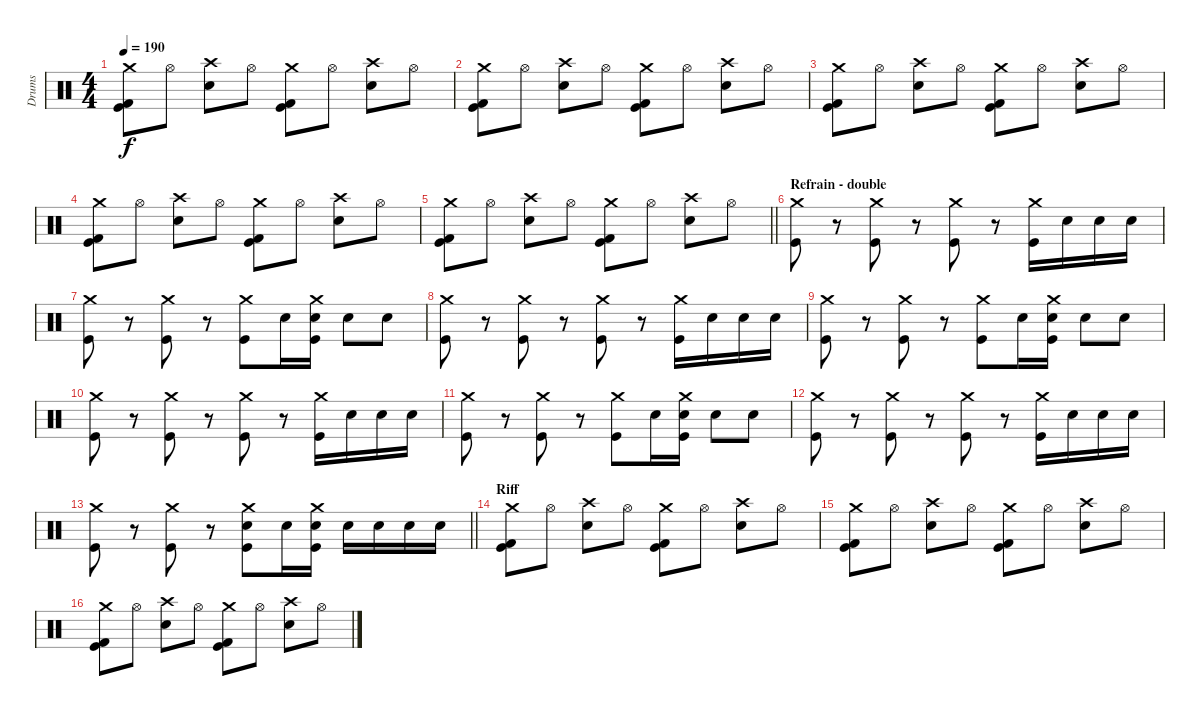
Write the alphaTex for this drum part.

\track ("Drums" "Drums") {instrument percussion}
\staff {score}
\articulation defaults
\ts (4 4)
\tempo 190
\clef neutral
\ks c
("Crash medium (hit)" "Kick (hit) 2" "Kick (hit)").8{dy f} "Hi-Hat (open)".8 ("Crash high (hit)" "Electric Snare (hit)").8 "Hi-Hat (open)".8 ("Crash medium (hit)" "Kick (hit) 2" "Kick (hit)").8 "Hi-Hat (open)".8 ("Crash high (hit)" "Electric Snare (hit)").8 "Hi-Hat (open)".8 |
("Crash medium (hit)" "Kick (hit) 2" "Kick (hit)").8 "Hi-Hat (open)".8 ("Crash high (hit)" "Electric Snare (hit)").8 "Hi-Hat (open)".8 ("Crash medium (hit)" "Kick (hit) 2" "Kick (hit)").8 "Hi-Hat (open)".8 ("Crash high (hit)" "Electric Snare (hit)").8 "Hi-Hat (open)".8 |
("Crash medium (hit)" "Kick (hit) 2" "Kick (hit)").8 "Hi-Hat (open)".8 ("Crash high (hit)" "Electric Snare (hit)").8 "Hi-Hat (open)".8 ("Crash medium (hit)" "Kick (hit) 2" "Kick (hit)").8 "Hi-Hat (open)".8 ("Crash high (hit)" "Electric Snare (hit)").8 "Hi-Hat (open)".8 |
("Crash medium (hit)" "Kick (hit) 2" "Kick (hit)").8 "Hi-Hat (open)".8 ("Crash high (hit)" "Electric Snare (hit)").8 "Hi-Hat (open)".8 ("Crash medium (hit)" "Kick (hit) 2" "Kick (hit)").8 "Hi-Hat (open)".8 ("Crash high (hit)" "Electric Snare (hit)").8 "Hi-Hat (open)".8 |
\barLineRight lightlight
("Crash medium (hit)" "Kick (hit) 2" "Kick (hit)").8 "Hi-Hat (open)".8 ("Crash high (hit)" "Electric Snare (hit)").8 "Hi-Hat (open)".8 ("Crash medium (hit)" "Kick (hit) 2" "Kick (hit)").8 "Hi-Hat (open)".8 ("Crash high (hit)" "Electric Snare (hit)").8 "Hi-Hat (open)".8 |
\section ("" "Refrain - double")
("Crash medium (hit)" "Kick (hit)").8 r.8 ("Crash medium (hit)" "Kick (hit)").8 r.8 ("Crash medium (hit)" "Kick (hit)").8 r.8 ("Crash medium (hit)" "Kick (hit)").16 "Electric Snare (hit)".16 "Electric Snare (hit)".16 "Electric Snare (hit)".16 |
("Crash medium (hit)" "Kick (hit)").8 r.8 ("Crash medium (hit)" "Kick (hit)").8 r.8 ("Crash medium (hit)" "Kick (hit)").8 "Electric Snare (hit)".16 ("Crash medium (hit)" "Electric Snare (hit)" "Kick (hit)").16 "Electric Snare (hit)".8 "Electric Snare (hit)".8 |
("Crash medium (hit)" "Kick (hit)").8 r.8 ("Crash medium (hit)" "Kick (hit)").8 r.8 ("Crash medium (hit)" "Kick (hit)").8 r.8 ("Crash medium (hit)" "Kick (hit)").16 "Electric Snare (hit)".16 "Electric Snare (hit)".16 "Electric Snare (hit)".16 |
("Crash medium (hit)" "Kick (hit)").8 r.8 ("Crash medium (hit)" "Kick (hit)").8 r.8 ("Crash medium (hit)" "Kick (hit)").8 "Electric Snare (hit)".16 ("Crash medium (hit)" "Electric Snare (hit)" "Kick (hit)").16 "Electric Snare (hit)".8 "Electric Snare (hit)".8 |
("Crash medium (hit)" "Kick (hit)").8 r.8 ("Crash medium (hit)" "Kick (hit)").8 r.8 ("Crash medium (hit)" "Kick (hit)").8 r.8 ("Crash medium (hit)" "Kick (hit)").16 "Electric Snare (hit)".16 "Electric Snare (hit)".16 "Electric Snare (hit)".16 |
("Crash medium (hit)" "Kick (hit)").8 r.8 ("Crash medium (hit)" "Kick (hit)").8 r.8 ("Crash medium (hit)" "Kick (hit)").8 "Electric Snare (hit)".16 ("Crash medium (hit)" "Electric Snare (hit)" "Kick (hit)").16 "Electric Snare (hit)".8 "Electric Snare (hit)".8 |
("Crash medium (hit)" "Kick (hit)").8 r.8 ("Crash medium (hit)" "Kick (hit)").8 r.8 ("Crash medium (hit)" "Kick (hit)").8 r.8 ("Crash medium (hit)" "Kick (hit)").16 "Electric Snare (hit)".16 "Electric Snare (hit)".16 "Electric Snare (hit)".16 |
\barLineRight lightlight
("Crash medium (hit)" "Kick (hit)").8 r.8 ("Crash medium (hit)" "Kick (hit)").8 r.8 ("Crash medium (hit)" "Electric Snare (hit)" "Kick (hit)").8 "Electric Snare (hit)".16 ("Crash medium (hit)" "Electric Snare (hit)" "Kick (hit)").16 "Electric Snare (hit)".16 "Electric Snare (hit)".16 "Electric Snare (hit)".16 "Electric Snare (hit)".16 |
\section ("" "Riff")
("Crash medium (hit)" "Kick (hit) 2" "Kick (hit)").8 "Hi-Hat (open)".8 ("Crash high (hit)" "Electric Snare (hit)").8 "Hi-Hat (open)".8 ("Crash medium (hit)" "Kick (hit) 2" "Kick (hit)").8 "Hi-Hat (open)".8 ("Crash high (hit)" "Electric Snare (hit)").8 "Hi-Hat (open)".8 |
("Crash medium (hit)" "Kick (hit) 2" "Kick (hit)").8 "Hi-Hat (open)".8 ("Crash high (hit)" "Electric Snare (hit)").8 "Hi-Hat (open)".8 ("Crash medium (hit)" "Kick (hit) 2" "Kick (hit)").8 "Hi-Hat (open)".8 ("Crash high (hit)" "Electric Snare (hit)").8 "Hi-Hat (open)".8 |
("Crash medium (hit)" "Kick (hit) 2" "Kick (hit)").8 "Hi-Hat (open)".8 ("Crash high (hit)" "Electric Snare (hit)").8 "Hi-Hat (open)".8 ("Crash medium (hit)" "Kick (hit) 2" "Kick (hit)").8 "Hi-Hat (open)".8 ("Crash high (hit)" "Electric Snare (hit)").8 "Hi-Hat (open)".8
